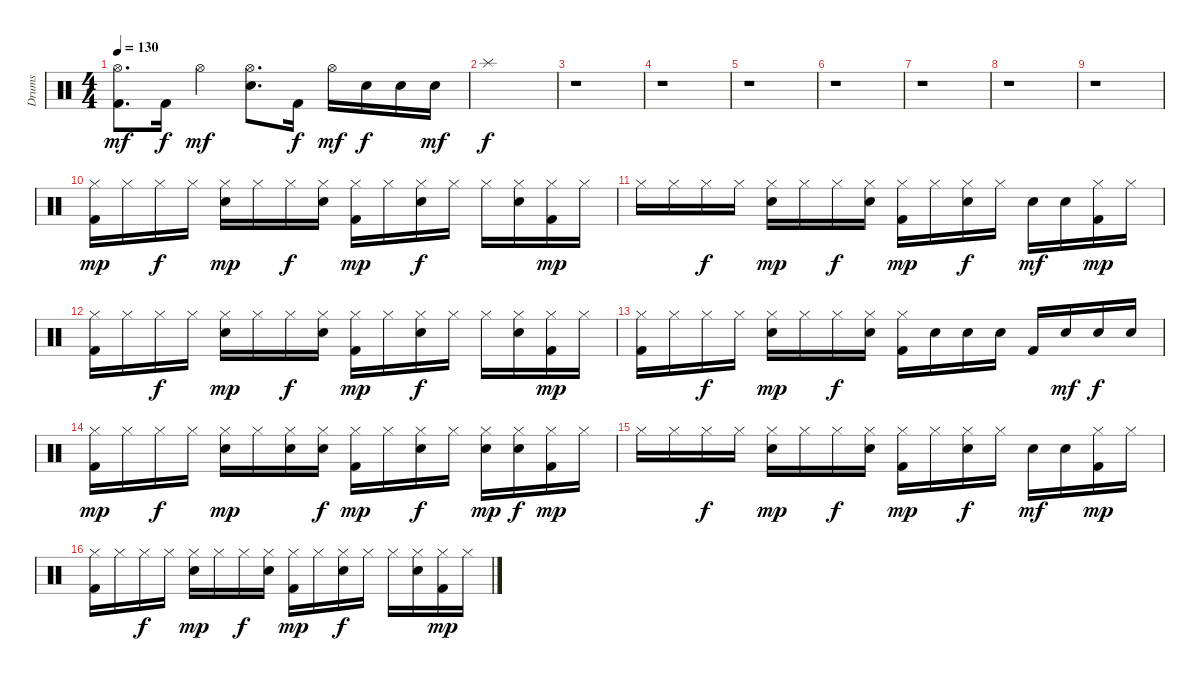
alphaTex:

\track ("Drums" "Drums") {instrument percussion}
\staff {score}
\articulation defaults
\ts (4 4)
\tempo 130
\clef neutral
\ks c
("Hi-Hat (open)" "Kick (hit) 2").8{d dy mf} "Kick (hit) 2".16{dy f} "Hi-Hat (open)".4{dy mf} ("Hi-Hat (open)" "Snare (hit) 2").8{d} "Kick (hit) 2".16{dy f} "Hi-Hat (open)".16{dy mf} "Snare (hit) 2".16{dy f} "Snare (hit) 2".16 "Snare (hit) 2".16{dy mf} |
"Splash (hit)".1{dy f} |
r.1 |
r.1 |
r.1 |
r.1 |
r.1 |
r.1 |
r.1 |
("Hi-Hat (closed)" "Kick (hit) 2").16{dy mp} "Hi-Hat (closed)".16 "Hi-Hat (closed)".16{dy f} "Hi-Hat (closed)".16 ("Hi-Hat (closed)" "Snare (hit) 2").16{dy mp} "Hi-Hat (closed)".16 "Hi-Hat (closed)".16{dy f} ("Hi-Hat (closed)" "Snare (hit) 2").16 ("Hi-Hat (closed)" "Kick (hit) 2").16{dy mp} "Hi-Hat (closed)".16 ("Hi-Hat (closed)" "Snare (hit) 2").16{dy f} "Hi-Hat (closed)".16 "Hi-Hat (closed)".16 ("Hi-Hat (closed)" "Snare (hit) 2").16 ("Hi-Hat (closed)" "Kick (hit) 2").16{dy mp} "Hi-Hat (closed)".16 |
"Hi-Hat (closed)".16 "Hi-Hat (closed)".16 "Hi-Hat (closed)".16{dy f} "Hi-Hat (closed)".16 ("Hi-Hat (closed)" "Snare (hit) 2").16{dy mp} "Hi-Hat (closed)".16 "Hi-Hat (closed)".16{dy f} ("Hi-Hat (closed)" "Snare (hit) 2").16 ("Hi-Hat (closed)" "Kick (hit) 2").16{dy mp} "Hi-Hat (closed)".16 ("Hi-Hat (closed)" "Snare (hit) 2").16{dy f} "Hi-Hat (closed)".16 "Snare (hit) 2".16{dy mf} "Snare (hit) 2".16 ("Hi-Hat (closed)" "Kick (hit) 2").16{dy mp} "Hi-Hat (closed)".16 |
("Hi-Hat (closed)" "Kick (hit) 2").16 "Hi-Hat (closed)".16 "Hi-Hat (closed)".16{dy f} "Hi-Hat (closed)".16 ("Hi-Hat (closed)" "Snare (hit) 2").16{dy mp} "Hi-Hat (closed)".16 "Hi-Hat (closed)".16{dy f} ("Hi-Hat (closed)" "Snare (hit) 2").16 ("Hi-Hat (closed)" "Kick (hit) 2").16{dy mp} "Hi-Hat (closed)".16 ("Hi-Hat (closed)" "Snare (hit) 2").16{dy f} "Hi-Hat (closed)".16 "Hi-Hat (closed)".16 ("Hi-Hat (closed)" "Snare (hit) 2").16 ("Hi-Hat (closed)" "Kick (hit) 2").16{dy mp} "Hi-Hat (closed)".16 |
("Hi-Hat (closed)" "Kick (hit) 2").16 "Hi-Hat (closed)".16 "Hi-Hat (closed)".16{dy f} "Hi-Hat (closed)".16 ("Hi-Hat (closed)" "Snare (hit) 2").16{dy mp} "Hi-Hat (closed)".16 "Hi-Hat (closed)".16{dy f} ("Hi-Hat (closed)" "Snare (hit) 2").16 ("Hi-Hat (closed)" "Kick (hit) 2").16 "Snare (hit) 2".16 "Snare (hit) 2".16 "Snare (hit) 2".16 "Kick (hit) 2".16 "Snare (hit) 2".16{dy mf} "Snare (hit) 2".16{dy f} "Snare (hit) 2".16 |
("Hi-Hat (closed)" "Kick (hit) 2").16{dy mp} "Hi-Hat (closed)".16 "Hi-Hat (closed)".16{dy f} "Hi-Hat (closed)".16 ("Hi-Hat (closed)" "Snare (hit) 2").16{dy mp} "Hi-Hat (closed)".16 ("Hi-Hat (closed)" "Snare (hit) 2").16 ("Hi-Hat (closed)" "Snare (hit) 2").16{dy f} ("Hi-Hat (closed)" "Kick (hit) 2").16{dy mp} "Hi-Hat (closed)".16 ("Hi-Hat (closed)" "Snare (hit) 2").16{dy f} "Hi-Hat (closed)".16 ("Hi-Hat (closed)" "Snare (hit) 2").16{dy mp} ("Hi-Hat (closed)" "Snare (hit) 2").16{dy f} ("Hi-Hat (closed)" "Kick (hit) 2").16{dy mp} "Hi-Hat (closed)".16 |
"Hi-Hat (closed)".16 "Hi-Hat (closed)".16 "Hi-Hat (closed)".16{dy f} "Hi-Hat (closed)".16 ("Hi-Hat (closed)" "Snare (hit) 2").16{dy mp} "Hi-Hat (closed)".16 "Hi-Hat (closed)".16{dy f} ("Hi-Hat (closed)" "Snare (hit) 2").16 ("Hi-Hat (closed)" "Kick (hit) 2").16{dy mp} "Hi-Hat (closed)".16 ("Hi-Hat (closed)" "Snare (hit) 2").16{dy f} "Hi-Hat (closed)".16 "Snare (hit) 2".16{dy mf} "Snare (hit) 2".16 ("Hi-Hat (closed)" "Kick (hit) 2").16{dy mp} "Hi-Hat (closed)".16 |
("Hi-Hat (closed)" "Kick (hit) 2").16 "Hi-Hat (closed)".16 "Hi-Hat (closed)".16{dy f} "Hi-Hat (closed)".16 ("Hi-Hat (closed)" "Snare (hit) 2").16{dy mp} "Hi-Hat (closed)".16 "Hi-Hat (closed)".16{dy f} ("Hi-Hat (closed)" "Snare (hit) 2").16 ("Hi-Hat (closed)" "Kick (hit) 2").16{dy mp} "Hi-Hat (closed)".16 ("Hi-Hat (closed)" "Snare (hit) 2").16{dy f} "Hi-Hat (closed)".16 "Hi-Hat (closed)".16 ("Hi-Hat (closed)" "Snare (hit) 2").16 ("Hi-Hat (closed)" "Kick (hit) 2").16{dy mp} "Hi-Hat (closed)".16
